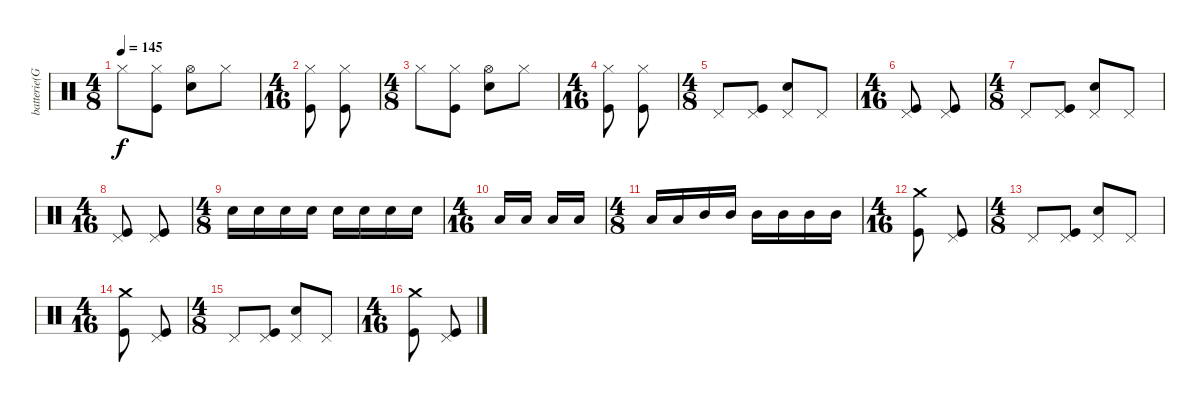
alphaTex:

\track ("batterie(Granberg)" "batterie(G") {instrument percussion}
\staff {score}
\articulation defaults
\ts (4 8)
\tempo 145
\clef neutral
\ks c "Hi-Hat (closed)".8{dy f}
("Hi-Hat (closed)" "Kick (hit)").8 ("Hi-Hat (open)" "Snare (hit) 2").8 "Hi-Hat (closed)".8 |
\ts (4 16)
("Hi-Hat (closed)" "Kick (hit)").8 ("Hi-Hat (closed)" "Kick (hit)").8 |
\ts (4 8)
"Hi-Hat (closed)".8 ("Hi-Hat (closed)" "Kick (hit)").8 ("Hi-Hat (open)" "Snare (hit) 2").8 "Hi-Hat (closed)".8 |
\ts (4 16)
("Hi-Hat (closed)" "Kick (hit)").8 ("Hi-Hat (closed)" "Kick (hit)").8 |
\ts (4 8)
"Pedal Hi-Hat (hit)".8 ("Pedal Hi-Hat (hit)" "Kick (hit)").8 ("Pedal Hi-Hat (hit)" "Snare (hit) 2").8 "Pedal Hi-Hat (hit)".8 |
\ts (4 16)
("Pedal Hi-Hat (hit)" "Kick (hit)").8 ("Pedal Hi-Hat (hit)" "Kick (hit)").8 |
\ts (4 8)
"Pedal Hi-Hat (hit)".8 ("Pedal Hi-Hat (hit)" "Kick (hit)").8 ("Pedal Hi-Hat (hit)" "Snare (hit) 2").8 "Pedal Hi-Hat (hit)".8 |
\ts (4 16)
("Pedal Hi-Hat (hit)" "Kick (hit)").8 ("Pedal Hi-Hat (hit)" "Kick (hit)").8 |
\ts (4 8)
"Snare (hit) 2".16 "Snare (hit) 2".16 "Snare (hit) 2".16 "Snare (hit) 2".16 "Snare (hit) 2".16 "Snare (hit) 2".16 "Snare (hit) 2".16 "Snare (hit) 2".16 |
\ts (4 16)
"Low Tom (hit)".16 "Low Tom (hit)".16 "Low Tom (hit)".16 "Low Tom (hit)".16 |
\ts (4 8)
"Low Tom (hit)".16 "Low Tom (hit)".16 "Mid Tom (hit)".16 "Mid Tom (hit)".16 "Mid Tom (hit)".16 "Mid Tom (hit)".16 "Mid Tom (hit)".16 "Mid Tom (hit)".16 |
\ts (4 16)
("Crash medium (hit)" "Kick (hit)").8 ("Pedal Hi-Hat (hit)" "Kick (hit)").8 |
\ts (4 8)
"Pedal Hi-Hat (hit)".8 ("Pedal Hi-Hat (hit)" "Kick (hit)").8 ("Pedal Hi-Hat (hit)" "Snare (hit) 2").8 "Pedal Hi-Hat (hit)".8 |
\ts (4 16)
("Crash medium (hit)" "Kick (hit)").8 ("Pedal Hi-Hat (hit)" "Kick (hit)").8 |
\ts (4 8)
"Pedal Hi-Hat (hit)".8 ("Pedal Hi-Hat (hit)" "Kick (hit)").8 ("Pedal Hi-Hat (hit)" "Snare (hit) 2").8 "Pedal Hi-Hat (hit)".8 |
\ts (4 16)
("Crash medium (hit)" "Kick (hit)").8 ("Pedal Hi-Hat (hit)" "Kick (hit)").8
